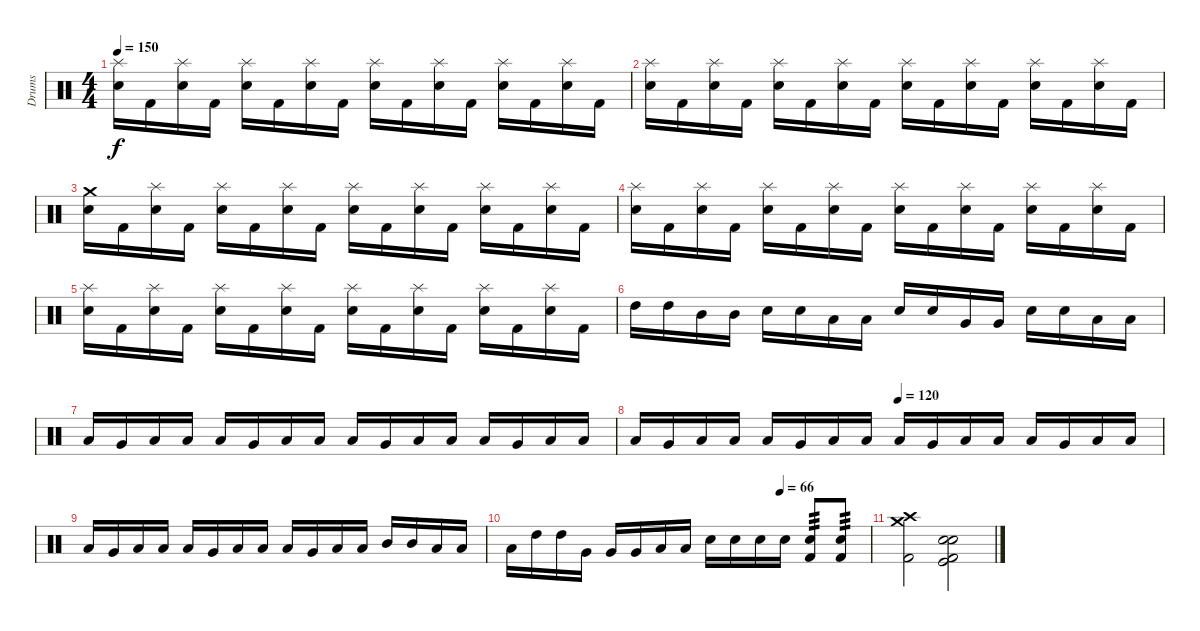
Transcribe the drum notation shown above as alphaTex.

\track ("Drums" "Drums") {instrument percussion}
\staff {score}
\articulation defaults
\ts (4 4)
\tempo 150
\clef neutral
\ks c
("Splash (hit)" "Electric Snare (hit)").16{dy f} "Kick (hit) 2".16 ("Splash (hit)" "Electric Snare (hit)").16 "Kick (hit) 2".16 ("Splash (hit)" "Electric Snare (hit)").16 "Kick (hit) 2".16 ("Splash (hit)" "Electric Snare (hit)").16 "Kick (hit) 2".16 ("Splash (hit)" "Electric Snare (hit)").16 "Kick (hit) 2".16 ("Splash (hit)" "Electric Snare (hit)").16 "Kick (hit) 2".16 ("Splash (hit)" "Electric Snare (hit)").16 "Kick (hit) 2".16 ("Splash (hit)" "Electric Snare (hit)").16 "Kick (hit) 2".16 |
("Splash (hit)" "Electric Snare (hit)").16 "Kick (hit) 2".16 ("Splash (hit)" "Electric Snare (hit)").16 "Kick (hit) 2".16 ("Splash (hit)" "Electric Snare (hit)").16 "Kick (hit) 2".16 ("Splash (hit)" "Electric Snare (hit)").16 "Kick (hit) 2".16 ("Splash (hit)" "Electric Snare (hit)").16 "Kick (hit) 2".16 ("Splash (hit)" "Electric Snare (hit)").16 "Kick (hit) 2".16 ("Splash (hit)" "Electric Snare (hit)").16 "Kick (hit) 2".16 ("Splash (hit)" "Electric Snare (hit)").16 "Kick (hit) 2".16 |
("Crash medium (hit)" "Electric Snare (hit)").16 "Kick (hit) 2".16 ("Splash (hit)" "Electric Snare (hit)").16 "Kick (hit) 2".16 ("Splash (hit)" "Electric Snare (hit)").16 "Kick (hit) 2".16 ("Splash (hit)" "Electric Snare (hit)").16 "Kick (hit) 2".16 ("Splash (hit)" "Electric Snare (hit)").16 "Kick (hit) 2".16 ("Splash (hit)" "Electric Snare (hit)").16 "Kick (hit) 2".16 ("Splash (hit)" "Electric Snare (hit)").16 "Kick (hit) 2".16 ("Splash (hit)" "Electric Snare (hit)").16 "Kick (hit) 2".16 |
("Splash (hit)" "Electric Snare (hit)").16 "Kick (hit) 2".16 ("Splash (hit)" "Electric Snare (hit)").16 "Kick (hit) 2".16 ("Splash (hit)" "Electric Snare (hit)").16 "Kick (hit) 2".16 ("Splash (hit)" "Electric Snare (hit)").16 "Kick (hit) 2".16 ("Splash (hit)" "Electric Snare (hit)").16 "Kick (hit) 2".16 ("Splash (hit)" "Electric Snare (hit)").16 "Kick (hit) 2".16 ("Splash (hit)" "Electric Snare (hit)").16 "Kick (hit) 2".16 ("Splash (hit)" "Electric Snare (hit)").16 "Kick (hit) 2".16 |
("Splash (hit)" "Electric Snare (hit)").16 "Kick (hit) 2".16 ("Splash (hit)" "Electric Snare (hit)").16 "Kick (hit) 2".16 ("Splash (hit)" "Electric Snare (hit)").16 "Kick (hit) 2".16 ("Splash (hit)" "Electric Snare (hit)").16 "Kick (hit) 2".16 ("Splash (hit)" "Electric Snare (hit)").16 "Kick (hit) 2".16 ("Splash (hit)" "Electric Snare (hit)").16 "Kick (hit) 2".16 ("Splash (hit)" "Electric Snare (hit)").16 "Kick (hit) 2".16 ("Splash (hit)" "Electric Snare (hit)").16 "Kick (hit) 2".16 |
"High Tom (hit)".16 "High Tom (hit)".16 "Mid Tom (hit)".16 "Mid Tom (hit)".16 "Electric Snare (hit)".16 "Electric Snare (hit)".16 "Low Tom (hit)".16 "Low Tom (hit)".16 "Electric Snare (hit)".16 "Electric Snare (hit)".16 "Very Low Tom (hit)".16 "Very Low Tom (hit)".16 "Electric Snare (hit)".16 "Electric Snare (hit)".16 "Low Floor Tom (hit)".16 "Low Floor Tom (hit)".16 |
"Low Floor Tom (hit)".16 "Very Low Tom (hit)".16 "Low Floor Tom (hit)".16 "Low Tom (hit)".16 "Low Floor Tom (hit)".16 "Very Low Tom (hit)".16 "Low Floor Tom (hit)".16 "Low Floor Tom (hit)".16 "Low Floor Tom (hit)".16 "Very Low Tom (hit)".16 "Low Floor Tom (hit)".16 "Low Tom (hit)".16 "Low Floor Tom (hit)".16 "Very Low Tom (hit)".16 "Low Floor Tom (hit)".16 "Low Tom (hit)".16 |
\tempo (120 0.5)
"Low Floor Tom (hit)".16 "Very Low Tom (hit)".16 "Low Floor Tom (hit)".16 "Low Tom (hit)".16 "Low Floor Tom (hit)".16 "Very Low Tom (hit)".16 "Low Floor Tom (hit)".16 "Low Floor Tom (hit)".16 "Low Floor Tom (hit)".16 "Very Low Tom (hit)".16 "Low Floor Tom (hit)".16 "Low Tom (hit)".16 "Low Floor Tom (hit)".16 "Very Low Tom (hit)".16 "Low Floor Tom (hit)".16 "Low Tom (hit)".16 |
"Low Floor Tom (hit)".16 "Very Low Tom (hit)".16 "Low Floor Tom (hit)".16 "Low Tom (hit)".16 "Low Floor Tom (hit)".16 "Very Low Tom (hit)".16 "Low Floor Tom (hit)".16 "Low Floor Tom (hit)".16 "Low Floor Tom (hit)".16 "Very Low Tom (hit)".16 "Low Floor Tom (hit)".16 "Low Tom (hit)".16 "Mid Tom (hit)".16 "Mid Tom (hit)".16 "Low Tom (hit)".16 "Low Tom (hit)".16 |
\tempo (66 0.75)
"Low Tom (hit)".16 "High Tom (hit)".16 "High Tom (hit)".16 "Very Low Tom (hit)".16 "Very Low Tom (hit)".16 "Very Low Tom (hit)".16 "Low Floor Tom (hit)".16 "Low Floor Tom (hit)".16 "Electric Snare (hit)".16 "Electric Snare (hit)".16 "Electric Snare (hit)".16 "Electric Snare (hit)".16 ("Electric Snare (hit)" "Kick (hit) 2").8{tp 3} ("Electric Snare (hit)" "Kick (hit) 2").8{tp 3} |
("Crash medium (hit)" "Crash high (hit)" "Kick (hit) 2").2 ("Kick (hit)" "Electric Snare (hit)" "Snare (hit) 2" "Kick (hit) 2").2
